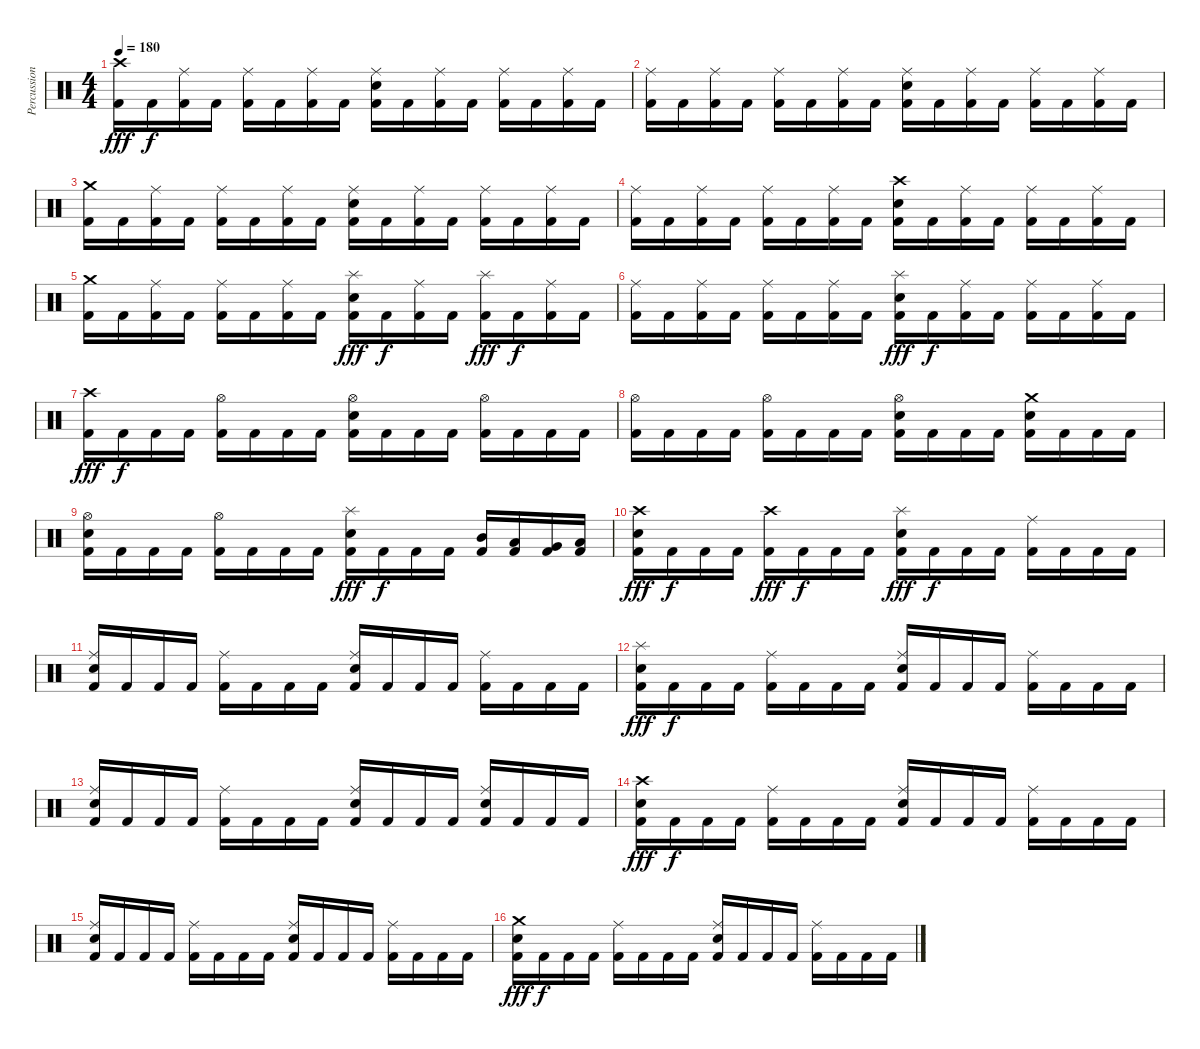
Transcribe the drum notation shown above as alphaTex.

\track ("Percussion" "Percussion") {instrument percussion}
\staff {score}
\articulation defaults
\ts (4 4)
\tempo 180
\clef neutral
\ks c
("Crash high (hit)" "Kick (hit) 2").16{dy fff} "Kick (hit) 2".16{dy f} ("Ride (middle)" "Kick (hit) 2").16 "Kick (hit) 2".16 ("Ride (middle)" "Kick (hit) 2").16 "Kick (hit) 2".16 ("Ride (middle)" "Kick (hit) 2").16 "Kick (hit) 2".16 ("Ride (middle)" "Electric Snare (hit)" "Kick (hit) 2").16 "Kick (hit) 2".16 ("Ride (middle)" "Kick (hit) 2").16 "Kick (hit) 2".16 ("Ride (middle)" "Kick (hit) 2").16 "Kick (hit) 2".16 ("Ride (middle)" "Kick (hit) 2").16 "Kick (hit) 2".16 |
("Ride (middle)" "Kick (hit) 2").16 "Kick (hit) 2".16 ("Ride (middle)" "Kick (hit) 2").16 "Kick (hit) 2".16 ("Ride (middle)" "Kick (hit) 2").16 "Kick (hit) 2".16 ("Ride (middle)" "Kick (hit) 2").16 "Kick (hit) 2".16 ("Ride (middle)" "Electric Snare (hit)" "Kick (hit) 2").16 "Kick (hit) 2".16 ("Ride (middle)" "Kick (hit) 2").16 "Kick (hit) 2".16 ("Ride (middle)" "Kick (hit) 2").16 "Kick (hit) 2".16 ("Ride (middle)" "Kick (hit) 2").16 "Kick (hit) 2".16 |
("Crash medium (hit)" "Kick (hit) 2").16 "Kick (hit) 2".16 ("Ride (middle)" "Kick (hit) 2").16 "Kick (hit) 2".16 ("Ride (middle)" "Kick (hit) 2").16 "Kick (hit) 2".16 ("Ride (middle)" "Kick (hit) 2").16 "Kick (hit) 2".16 ("Ride (middle)" "Electric Snare (hit)" "Kick (hit) 2").16 "Kick (hit) 2".16 ("Ride (middle)" "Kick (hit) 2").16 "Kick (hit) 2".16 ("Ride (middle)" "Kick (hit) 2").16 "Kick (hit) 2".16 ("Ride (middle)" "Kick (hit) 2").16 "Kick (hit) 2".16 |
("Ride (middle)" "Kick (hit) 2").16 "Kick (hit) 2".16 ("Ride (middle)" "Kick (hit) 2").16 "Kick (hit) 2".16 ("Ride (middle)" "Kick (hit) 2").16 "Kick (hit) 2".16 ("Ride (middle)" "Kick (hit) 2").16 "Kick (hit) 2".16 ("Crash high (hit)" "Electric Snare (hit)" "Kick (hit) 2").16 "Kick (hit) 2".16 ("Ride (middle)" "Kick (hit) 2").16 "Kick (hit) 2".16 ("Ride (middle)" "Kick (hit) 2").16 "Kick (hit) 2".16 ("Ride (middle)" "Kick (hit) 2").16 "Kick (hit) 2".16 |
("Crash medium (hit)" "Kick (hit) 2").16 "Kick (hit) 2".16 ("Ride (middle)" "Kick (hit) 2").16 "Kick (hit) 2".16 ("Ride (middle)" "Kick (hit) 2").16 "Kick (hit) 2".16 ("Ride (middle)" "Kick (hit) 2").16 "Kick (hit) 2".16 ("Splash (hit)" "Electric Snare (hit)" "Kick (hit) 2").16{dy fff} "Kick (hit) 2".16{dy f} ("Ride (middle)" "Kick (hit) 2").16 "Kick (hit) 2".16 ("Splash (hit)" "Kick (hit) 2").16{dy fff} "Kick (hit) 2".16{dy f} ("Ride (middle)" "Kick (hit) 2").16 "Kick (hit) 2".16 |
("Ride (middle)" "Kick (hit) 2").16 "Kick (hit) 2".16 ("Ride (middle)" "Kick (hit) 2").16 "Kick (hit) 2".16 ("Ride (middle)" "Kick (hit) 2").16 "Kick (hit) 2".16 ("Ride (middle)" "Kick (hit) 2").16 "Kick (hit) 2".16 ("Splash (hit)" "Electric Snare (hit)" "Kick (hit) 2").16{dy fff} "Kick (hit) 2".16{dy f} ("Ride (middle)" "Kick (hit) 2").16 "Kick (hit) 2".16 ("Ride (middle)" "Kick (hit) 2").16 "Kick (hit) 2".16 ("Ride (middle)" "Kick (hit) 2").16 "Kick (hit) 2".16 |
("Crash high (hit)" "Kick (hit) 2").16{dy fff} "Kick (hit) 2".16{dy f} "Kick (hit) 2".16 "Kick (hit) 2".16 ("Hi-Hat (open)" "Kick (hit) 2").16 "Kick (hit) 2".16 "Kick (hit) 2".16 "Kick (hit) 2".16 ("Hi-Hat (open)" "Electric Snare (hit)" "Kick (hit) 2").16 "Kick (hit) 2".16 "Kick (hit) 2".16 "Kick (hit) 2".16 ("Hi-Hat (open)" "Kick (hit) 2").16 "Kick (hit) 2".16 "Kick (hit) 2".16 "Kick (hit) 2".16 |
("Hi-Hat (open)" "Kick (hit) 2").16 "Kick (hit) 2".16 "Kick (hit) 2".16 "Kick (hit) 2".16 ("Hi-Hat (open)" "Kick (hit) 2").16 "Kick (hit) 2".16 "Kick (hit) 2".16 "Kick (hit) 2".16 ("Hi-Hat (open)" "Electric Snare (hit)" "Kick (hit) 2").16 "Kick (hit) 2".16 "Kick (hit) 2".16 "Kick (hit) 2".16 ("Crash medium (hit)" "Electric Snare (hit)" "Kick (hit) 2").16 "Kick (hit) 2".16 "Kick (hit) 2".16 "Kick (hit) 2".16 |
("Hi-Hat (open)" "Electric Snare (hit)" "Kick (hit) 2").16 "Kick (hit) 2".16 "Kick (hit) 2".16 "Kick (hit) 2".16 ("Hi-Hat (open)" "Kick (hit) 2").16 "Kick (hit) 2".16 "Kick (hit) 2".16 "Kick (hit) 2".16 ("Splash (hit)" "Electric Snare (hit)" "Kick (hit) 2").16{dy fff} "Kick (hit) 2".16{dy f} "Kick (hit) 2".16 "Kick (hit) 2".16 ("Mid Tom (hit)" "Kick (hit) 2").16 ("Low Tom (hit)" "Kick (hit) 2").16 ("Very Low Tom (hit)" "Kick (hit) 2").16 ("Low Floor Tom (hit)" "Kick (hit) 2").16 |
("Crash high (hit)" "Electric Snare (hit)" "Kick (hit) 2").16{dy fff} "Kick (hit) 2".16{dy f} "Kick (hit) 2".16 "Kick (hit) 2".16 ("Crash high (hit)" "Kick (hit) 2").16{dy fff} "Kick (hit) 2".16{dy f} "Kick (hit) 2".16 "Kick (hit) 2".16 ("Splash (hit)" "Electric Snare (hit)" "Kick (hit) 2").16{dy fff} "Kick (hit) 2".16{dy f} "Kick (hit) 2".16 "Kick (hit) 2".16 ("Ride (middle)" "Kick (hit) 2").16 "Kick (hit) 2".16 "Kick (hit) 2".16 "Kick (hit) 2".16 |
("Ride (middle)" "Electric Snare (hit)" "Kick (hit) 2").16 "Kick (hit) 2".16 "Kick (hit) 2".16 "Kick (hit) 2".16 ("Ride (middle)" "Kick (hit) 2").16 "Kick (hit) 2".16 "Kick (hit) 2".16 "Kick (hit) 2".16 ("Ride (middle)" "Electric Snare (hit)" "Kick (hit) 2").16 "Kick (hit) 2".16 "Kick (hit) 2".16 "Kick (hit) 2".16 ("Ride (middle)" "Kick (hit) 2").16 "Kick (hit) 2".16 "Kick (hit) 2".16 "Kick (hit) 2".16 |
("Splash (hit)" "Electric Snare (hit)" "Kick (hit) 2").16{dy fff} "Kick (hit) 2".16{dy f} "Kick (hit) 2".16 "Kick (hit) 2".16 ("Ride (middle)" "Kick (hit) 2").16 "Kick (hit) 2".16 "Kick (hit) 2".16 "Kick (hit) 2".16 ("Ride (middle)" "Electric Snare (hit)" "Kick (hit) 2").16 "Kick (hit) 2".16 "Kick (hit) 2".16 "Kick (hit) 2".16 ("Ride (middle)" "Kick (hit) 2").16 "Kick (hit) 2".16 "Kick (hit) 2".16 "Kick (hit) 2".16 |
("Ride (middle)" "Electric Snare (hit)" "Kick (hit) 2").16 "Kick (hit) 2".16 "Kick (hit) 2".16 "Kick (hit) 2".16 ("Ride (middle)" "Kick (hit) 2").16 "Kick (hit) 2".16 "Kick (hit) 2".16 "Kick (hit) 2".16 ("Ride (middle)" "Electric Snare (hit)" "Kick (hit) 2").16 "Kick (hit) 2".16 "Kick (hit) 2".16 "Kick (hit) 2".16 ("Ride (middle)" "Electric Snare (hit)" "Kick (hit) 2").16 "Kick (hit) 2".16 "Kick (hit) 2".16 "Kick (hit) 2".16 |
("Crash high (hit)" "Electric Snare (hit)" "Kick (hit) 2").16{dy fff} "Kick (hit) 2".16{dy f} "Kick (hit) 2".16 "Kick (hit) 2".16 ("Ride (middle)" "Kick (hit) 2").16 "Kick (hit) 2".16 "Kick (hit) 2".16 "Kick (hit) 2".16 ("Ride (middle)" "Electric Snare (hit)" "Kick (hit) 2").16 "Kick (hit) 2".16 "Kick (hit) 2".16 "Kick (hit) 2".16 ("Ride (middle)" "Kick (hit) 2").16 "Kick (hit) 2".16 "Kick (hit) 2".16 "Kick (hit) 2".16 |
("Ride (middle)" "Electric Snare (hit)" "Kick (hit) 2").16 "Kick (hit) 2".16 "Kick (hit) 2".16 "Kick (hit) 2".16 ("Ride (middle)" "Kick (hit) 2").16 "Kick (hit) 2".16 "Kick (hit) 2".16 "Kick (hit) 2".16 ("Ride (middle)" "Electric Snare (hit)" "Kick (hit) 2").16 "Kick (hit) 2".16 "Kick (hit) 2".16 "Kick (hit) 2".16 ("Ride (middle)" "Kick (hit) 2").16 "Kick (hit) 2".16 "Kick (hit) 2".16 "Kick (hit) 2".16 |
("Crash medium (hit)" "Electric Snare (hit)" "Kick (hit) 2").16{dy fff} "Kick (hit) 2".16{dy f} "Kick (hit) 2".16 "Kick (hit) 2".16 ("Ride (middle)" "Kick (hit) 2").16 "Kick (hit) 2".16 "Kick (hit) 2".16 "Kick (hit) 2".16 ("Ride (middle)" "Electric Snare (hit)" "Kick (hit) 2").16 "Kick (hit) 2".16 "Kick (hit) 2".16 "Kick (hit) 2".16 ("Ride (middle)" "Kick (hit) 2").16 "Kick (hit) 2".16 "Kick (hit) 2".16 "Kick (hit) 2".16
